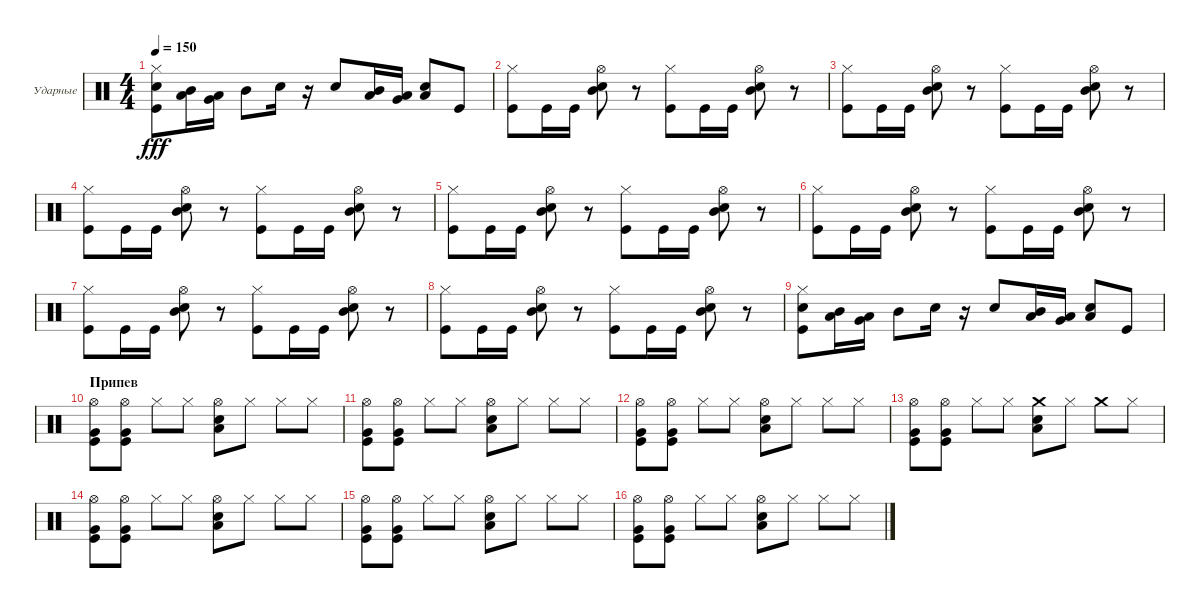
\bracketExtendMode groupsimilarinstruments
\firstSystemTrackNameOrientation horizontal
\otherSystemsTrackNameOrientation horizontal
\track ("Максим Удалов" "Ударные") {instrument percussion}
\staff {score}
\articulation defaults
\ts (4 4)
\tempo 150
\clef neutral
\ks c
("Hi-Hat (closed)" "Snare (hit) 2" "Kick (hit)").8{dy fff} ("Mid Tom (hit)" "Low Tom (hit)").16 ("Low Tom (hit)" "Very Low Tom (hit)").16 "Mid Tom (hit)".8 "Snare (hit) 2".16 r.16 "Snare (hit) 2".8 ("Mid Tom (hit)" "Low Tom (hit)").16 ("Low Tom (hit)" "Very Low Tom (hit)").16 ("Snare (hit) 2" "Low Tom (hit)").8 "Kick (hit)".8 |
("Hi-Hat (closed)" "Kick (hit)").8 "Kick (hit)".16 "Kick (hit)".16 ("Hi-Hat (open)" "Mid Tom (hit)" "Snare (hit) 2").8 r.8 ("Hi-Hat (closed)" "Kick (hit)").8 "Kick (hit)".16 "Kick (hit)".16 ("Hi-Hat (open)" "Mid Tom (hit)" "Snare (hit) 2").8 r.8 |
("Hi-Hat (closed)" "Kick (hit)").8 "Kick (hit)".16 "Kick (hit)".16 ("Hi-Hat (open)" "Mid Tom (hit)" "Snare (hit) 2").8 r.8 ("Hi-Hat (closed)" "Kick (hit)").8 "Kick (hit)".16 "Kick (hit)".16 ("Hi-Hat (open)" "Mid Tom (hit)" "Snare (hit) 2").8 r.8 |
("Hi-Hat (closed)" "Kick (hit)").8 "Kick (hit)".16 "Kick (hit)".16 ("Hi-Hat (open)" "Mid Tom (hit)" "Snare (hit) 2").8 r.8 ("Hi-Hat (closed)" "Kick (hit)").8 "Kick (hit)".16 "Kick (hit)".16 ("Hi-Hat (open)" "Mid Tom (hit)" "Snare (hit) 2").8 r.8 |
("Hi-Hat (closed)" "Kick (hit)").8 "Kick (hit)".16 "Kick (hit)".16 ("Hi-Hat (open)" "Mid Tom (hit)" "Snare (hit) 2").8 r.8 ("Hi-Hat (closed)" "Kick (hit)").8 "Kick (hit)".16 "Kick (hit)".16 ("Hi-Hat (open)" "Mid Tom (hit)" "Snare (hit) 2").8 r.8 |
("Hi-Hat (closed)" "Kick (hit)").8 "Kick (hit)".16 "Kick (hit)".16 ("Hi-Hat (open)" "Mid Tom (hit)" "Snare (hit) 2").8 r.8 ("Hi-Hat (closed)" "Kick (hit)").8 "Kick (hit)".16 "Kick (hit)".16 ("Hi-Hat (open)" "Mid Tom (hit)" "Snare (hit) 2").8 r.8 |
("Hi-Hat (closed)" "Kick (hit)").8 "Kick (hit)".16 "Kick (hit)".16 ("Hi-Hat (open)" "Mid Tom (hit)" "Snare (hit) 2").8 r.8 ("Hi-Hat (closed)" "Kick (hit)").8 "Kick (hit)".16 "Kick (hit)".16 ("Hi-Hat (open)" "Mid Tom (hit)" "Snare (hit) 2").8 r.8 |
("Hi-Hat (closed)" "Kick (hit)").8 "Kick (hit)".16 "Kick (hit)".16 ("Hi-Hat (open)" "Mid Tom (hit)" "Snare (hit) 2").8 r.8 ("Hi-Hat (closed)" "Kick (hit)").8 "Kick (hit)".16 "Kick (hit)".16 ("Hi-Hat (open)" "Mid Tom (hit)" "Snare (hit) 2").8 r.8 |
("Hi-Hat (closed)" "Snare (hit) 2" "Kick (hit)").8 ("Mid Tom (hit)" "Low Tom (hit)").16 ("Low Tom (hit)" "Very Low Tom (hit)").16 "Mid Tom (hit)".8 "Snare (hit) 2".16 r.16 "Snare (hit) 2".8 ("Mid Tom (hit)" "Low Tom (hit)").16 ("Low Tom (hit)" "Very Low Tom (hit)").16 ("Snare (hit) 2" "Low Tom (hit)").8 "Kick (hit)".8 |
\section ("" "Припев")
("Hi-Hat (open)" "Very Low Tom (hit)" "Kick (hit)").8 ("Hi-Hat (open)" "Very Low Tom (hit)" "Kick (hit)").8 "Hi-Hat (closed)".8 "Hi-Hat (closed)".8 ("Hi-Hat (open)" "Low Tom (hit)" "Snare (hit) 2").8 "Hi-Hat (closed)".8 "Hi-Hat (closed)".8 "Hi-Hat (closed)".8 |
("Hi-Hat (open)" "Very Low Tom (hit)" "Kick (hit)").8 ("Hi-Hat (open)" "Very Low Tom (hit)" "Kick (hit)").8 "Hi-Hat (closed)".8 "Hi-Hat (closed)".8 ("Hi-Hat (open)" "Low Tom (hit)" "Snare (hit) 2").8 "Hi-Hat (closed)".8 "Hi-Hat (closed)".8 "Hi-Hat (closed)".8 |
("Hi-Hat (open)" "Very Low Tom (hit)" "Kick (hit)").8 ("Hi-Hat (open)" "Very Low Tom (hit)" "Kick (hit)").8 "Hi-Hat (closed)".8 "Hi-Hat (closed)".8 ("Hi-Hat (open)" "Low Tom (hit)" "Snare (hit) 2").8 "Hi-Hat (closed)".8 "Hi-Hat (closed)".8 "Hi-Hat (closed)".8 |
("Hi-Hat (open)" "Very Low Tom (hit)" "Kick (hit)").8 ("Hi-Hat (open)" "Very Low Tom (hit)" "Kick (hit)").8 "Hi-Hat (closed)".8 "Hi-Hat (closed)".8 ("Crash medium (hit)" "Low Tom (hit)" "Snare (hit) 2").8 "Hi-Hat (closed)".8 "Crash medium (hit)".8 "Hi-Hat (closed)".8 |
("Hi-Hat (open)" "Very Low Tom (hit)" "Kick (hit)").8 ("Hi-Hat (open)" "Very Low Tom (hit)" "Kick (hit)").8 "Hi-Hat (closed)".8 "Hi-Hat (closed)".8 ("Hi-Hat (open)" "Low Tom (hit)" "Snare (hit) 2").8 "Hi-Hat (closed)".8 "Hi-Hat (closed)".8 "Hi-Hat (closed)".8 |
("Hi-Hat (open)" "Very Low Tom (hit)" "Kick (hit)").8 ("Hi-Hat (open)" "Very Low Tom (hit)" "Kick (hit)").8 "Hi-Hat (closed)".8 "Hi-Hat (closed)".8 ("Hi-Hat (open)" "Low Tom (hit)" "Snare (hit) 2").8 "Hi-Hat (closed)".8 "Hi-Hat (closed)".8 "Hi-Hat (closed)".8 |
("Hi-Hat (open)" "Very Low Tom (hit)" "Kick (hit)").8 ("Hi-Hat (open)" "Very Low Tom (hit)" "Kick (hit)").8 "Hi-Hat (closed)".8 "Hi-Hat (closed)".8 ("Hi-Hat (open)" "Low Tom (hit)" "Snare (hit) 2").8 "Hi-Hat (closed)".8 "Hi-Hat (closed)".8 "Hi-Hat (closed)".8
